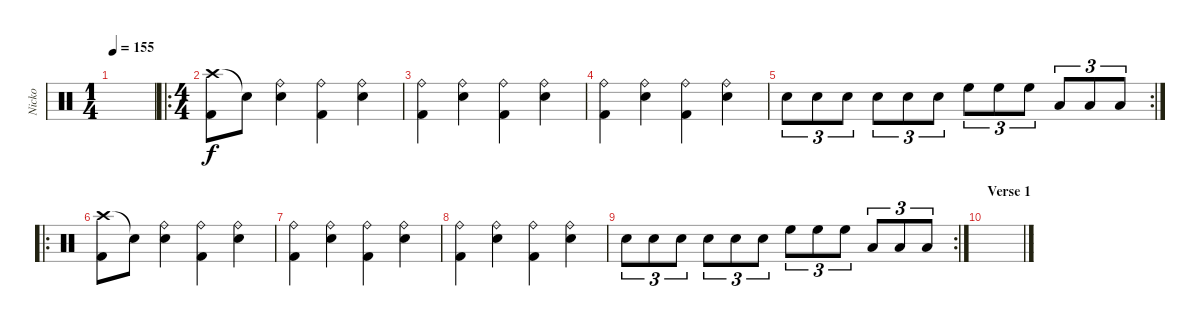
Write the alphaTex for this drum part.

\track ("Nicko" "Nicko") {instrument percussion}
\staff {score}
\articulation defaults
\ts (1 4)
\tempo 155
\clef neutral
\ks c
|
\ro
\ts (4 4)
("Crash high (hit)" "Kick (hit) 2").8 "Snare (hit)"{t}.8 ("Ride (bell)" "Snare (hit) 2").4 ("Ride (bell)" "Kick (hit) 2").4 ("Ride (bell)" "Snare (hit) 2").4 |
("Ride (bell)" "Kick (hit) 2").4 ("Ride (bell)" "Snare (hit) 2").4 ("Ride (bell)" "Kick (hit) 2").4 ("Ride (bell)" "Snare (hit) 2").4 |
("Ride (bell)" "Kick (hit) 2").4 ("Ride (bell)" "Snare (hit) 2").4 ("Ride (bell)" "Kick (hit) 2").4 ("Ride (bell)" "Snare (hit) 2").4 |
\rc 2 "Snare (hit) 2".8{tu (3 2)} "Snare (hit) 2".8{tu (3 2)} "Snare (hit) 2".8{tu (3 2)} "Snare (hit) 2".8{tu (3 2)} "Snare (hit) 2".8{tu (3 2)} "Snare (hit) 2".8{tu (3 2)} "High Floor Tom (hit)".8{tu (3 2)} "High Floor Tom (hit)".8{tu (3 2)} "High Floor Tom (hit)".8{tu (3 2)} "Low Tom (hit)".8{tu (3 2)} "Low Tom (hit)".8{tu (3 2)} "Low Tom (hit)".8{tu (3 2)}
|
\ro
("Crash high (hit)" "Kick (hit) 2").8 "Snare (hit)"{t}.8 ("Ride (bell)" "Snare (hit) 2").4 ("Ride (bell)" "Kick (hit) 2").4 ("Ride (bell)" "Snare (hit) 2").4 |
("Ride (bell)" "Kick (hit) 2").4 ("Ride (bell)" "Snare (hit) 2").4 ("Ride (bell)" "Kick (hit) 2").4 ("Ride (bell)" "Snare (hit) 2").4 |
("Ride (bell)" "Kick (hit) 2").4 ("Ride (bell)" "Snare (hit) 2").4 ("Ride (bell)" "Kick (hit) 2").4 ("Ride (bell)" "Snare (hit) 2").4 |
\rc 2 "Snare (hit) 2".8{tu (3 2)} "Snare (hit) 2".8{tu (3 2)} "Snare (hit) 2".8{tu (3 2)} "Snare (hit) 2".8{tu (3 2)} "Snare (hit) 2".8{tu (3 2)} "Snare (hit) 2".8{tu (3 2)} "High Floor Tom (hit)".8{tu (3 2)} "High Floor Tom (hit)".8{tu (3 2)} "High Floor Tom (hit)".8{tu (3 2)} "Low Tom (hit)".8{tu (3 2)} "Low Tom (hit)".8{tu (3 2)} "Low Tom (hit)".8{tu (3 2)}
|
\section ("" "Verse 1")
